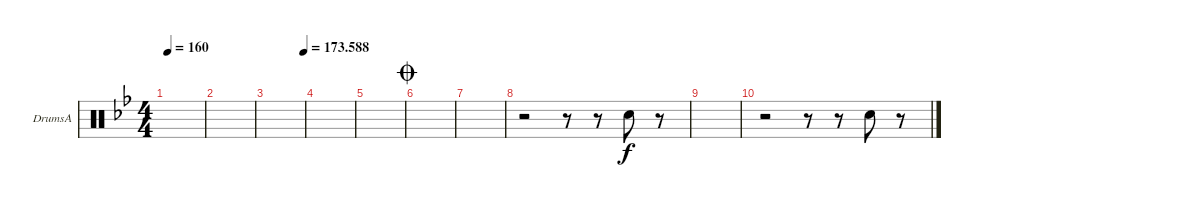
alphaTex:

\defaultSystemsLayout 4
\bracketExtendMode groupsimilarinstruments
\firstSystemTrackNameOrientation horizontal
\otherSystemsTrackNameOrientation horizontal
\track ("Drumkit" "DrumsA") {instrument percussion}
\staff {score}
\articulation defaults
\ts (4 4)
\tempo 160
\clef neutral
\ks bb
|
|
\tempo (173.588 1)
|
|
|
\jump coda
|
|
r.2 r.8 r.8 "Snare (hit) 2".8 r.8 |
|
r.2 r.8 r.8 "Snare (hit) 2".8 r.8
